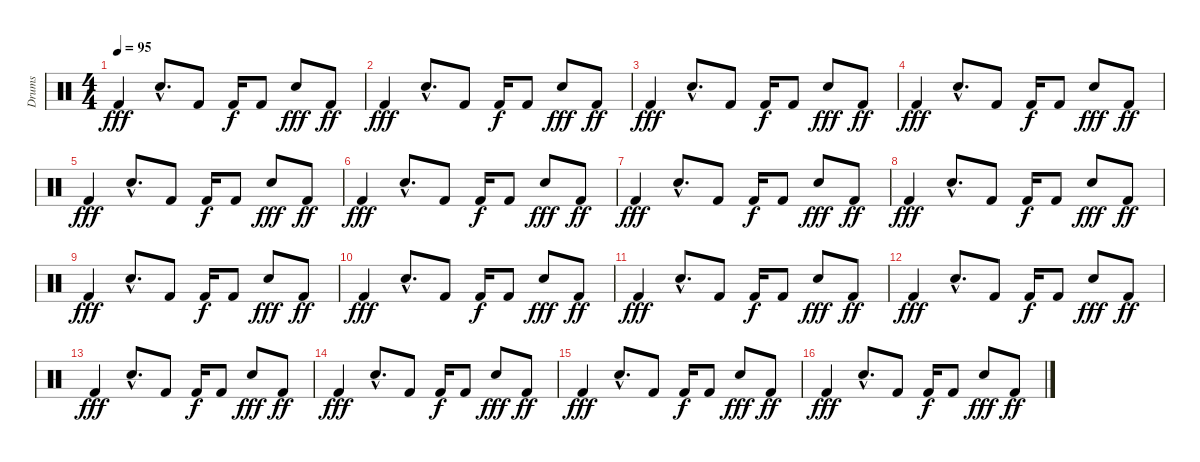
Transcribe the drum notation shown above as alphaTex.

\track ("Drums" "Drums") {instrument percussion}
\staff {score}
\articulation defaults
\ts (4 4)
\tempo 95
\clef neutral
\ks c "Kick (hit) 2".4{dy fff} "Electric Snare (hit)"{hac}.8{d} "Kick (hit) 2".8 "Kick (hit) 2".16{dy f} "Kick (hit) 2".8 "Electric Snare (hit)".8{dy fff} "Kick (hit) 2".8{dy ff}
|
"Kick (hit) 2".4{dy fff} "Electric Snare (hit)"{hac}.8{d} "Kick (hit) 2".8 "Kick (hit) 2".16{dy f} "Kick (hit) 2".8 "Electric Snare (hit)".8{dy fff} "Kick (hit) 2".8{dy ff} |
"Kick (hit) 2".4{dy fff} "Electric Snare (hit)"{hac}.8{d} "Kick (hit) 2".8 "Kick (hit) 2".16{dy f} "Kick (hit) 2".8 "Electric Snare (hit)".8{dy fff} "Kick (hit) 2".8{dy ff} |
"Kick (hit) 2".4{dy fff} "Electric Snare (hit)"{hac}.8{d} "Kick (hit) 2".8 "Kick (hit) 2".16{dy f} "Kick (hit) 2".8 "Electric Snare (hit)".8{dy fff} "Kick (hit) 2".8{dy ff} |
"Kick (hit) 2".4{dy fff} "Electric Snare (hit)"{hac}.8{d} "Kick (hit) 2".8 "Kick (hit) 2".16{dy f} "Kick (hit) 2".8 "Electric Snare (hit)".8{dy fff} "Kick (hit) 2".8{dy ff} |
"Kick (hit) 2".4{dy fff} "Electric Snare (hit)"{hac}.8{d} "Kick (hit) 2".8 "Kick (hit) 2".16{dy f} "Kick (hit) 2".8 "Electric Snare (hit)".8{dy fff} "Kick (hit) 2".8{dy ff} |
"Kick (hit) 2".4{dy fff} "Electric Snare (hit)"{hac}.8{d} "Kick (hit) 2".8 "Kick (hit) 2".16{dy f} "Kick (hit) 2".8 "Electric Snare (hit)".8{dy fff} "Kick (hit) 2".8{dy ff} |
"Kick (hit) 2".4{dy fff} "Electric Snare (hit)"{hac}.8{d} "Kick (hit) 2".8 "Kick (hit) 2".16{dy f} "Kick (hit) 2".8 "Electric Snare (hit)".8{dy fff} "Kick (hit) 2".8{dy ff} |
"Kick (hit) 2".4{dy fff} "Electric Snare (hit)"{hac}.8{d} "Kick (hit) 2".8 "Kick (hit) 2".16{dy f} "Kick (hit) 2".8 "Electric Snare (hit)".8{dy fff} "Kick (hit) 2".8{dy ff} |
"Kick (hit) 2".4{dy fff} "Electric Snare (hit)"{hac}.8{d} "Kick (hit) 2".8 "Kick (hit) 2".16{dy f} "Kick (hit) 2".8 "Electric Snare (hit)".8{dy fff} "Kick (hit) 2".8{dy ff} |
"Kick (hit) 2".4{dy fff} "Electric Snare (hit)"{hac}.8{d} "Kick (hit) 2".8 "Kick (hit) 2".16{dy f} "Kick (hit) 2".8 "Electric Snare (hit)".8{dy fff} "Kick (hit) 2".8{dy ff} |
"Kick (hit) 2".4{dy fff} "Electric Snare (hit)"{hac}.8{d} "Kick (hit) 2".8 "Kick (hit) 2".16{dy f} "Kick (hit) 2".8 "Electric Snare (hit)".8{dy fff} "Kick (hit) 2".8{dy ff} |
"Kick (hit) 2".4{dy fff} "Electric Snare (hit)"{hac}.8{d} "Kick (hit) 2".8 "Kick (hit) 2".16{dy f} "Kick (hit) 2".8 "Electric Snare (hit)".8{dy fff} "Kick (hit) 2".8{dy ff} |
"Kick (hit) 2".4{dy fff} "Electric Snare (hit)"{hac}.8{d} "Kick (hit) 2".8 "Kick (hit) 2".16{dy f} "Kick (hit) 2".8 "Electric Snare (hit)".8{dy fff} "Kick (hit) 2".8{dy ff} |
"Kick (hit) 2".4{dy fff} "Electric Snare (hit)"{hac}.8{d} "Kick (hit) 2".8 "Kick (hit) 2".16{dy f} "Kick (hit) 2".8 "Electric Snare (hit)".8{dy fff} "Kick (hit) 2".8{dy ff} |
"Kick (hit) 2".4{dy fff} "Electric Snare (hit)"{hac}.8{d} "Kick (hit) 2".8 "Kick (hit) 2".16{dy f} "Kick (hit) 2".8 "Electric Snare (hit)".8{dy fff} "Kick (hit) 2".8{dy ff}
